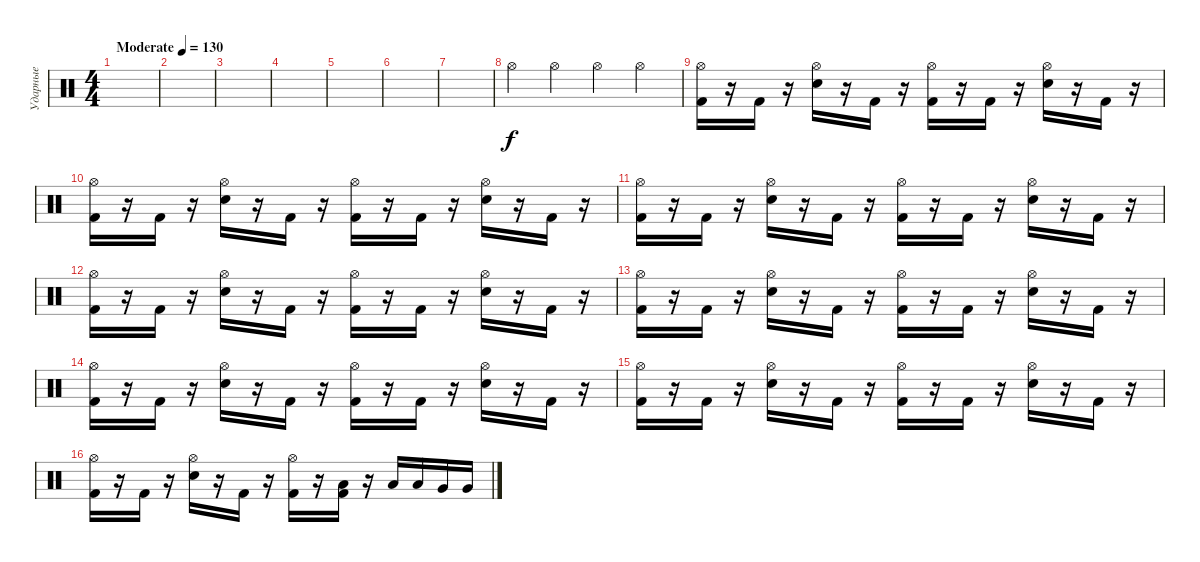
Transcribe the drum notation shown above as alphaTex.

\track ("Ударные" "Ударные") {instrument percussion}
\staff {score}
\articulation defaults
\ts (4 4)
\tempo (130 "Moderate")
\clef neutral
\ks c
|
|
|
|
|
|
|
"Hi-Hat (open)".4 "Hi-Hat (open)".4 "Hi-Hat (open)".4 "Hi-Hat (open)".4 |
("Hi-Hat (open)" "Kick (hit) 2").16 r.16 "Kick (hit) 2".16 r.16 ("Hi-Hat (open)" "Electric Snare (hit)").16 r.16 "Kick (hit) 2".16 r.16 ("Hi-Hat (open)" "Kick (hit) 2").16 r.16 "Kick (hit) 2".16 r.16 ("Hi-Hat (open)" "Electric Snare (hit)").16 r.16 "Kick (hit) 2".16 r.16 |
("Hi-Hat (open)" "Kick (hit) 2").16 r.16 "Kick (hit) 2".16 r.16 ("Hi-Hat (open)" "Electric Snare (hit)").16 r.16 "Kick (hit) 2".16 r.16 ("Hi-Hat (open)" "Kick (hit) 2").16 r.16 "Kick (hit) 2".16 r.16 ("Hi-Hat (open)" "Electric Snare (hit)").16 r.16 "Kick (hit) 2".16 r.16 |
("Hi-Hat (open)" "Kick (hit) 2").16 r.16 "Kick (hit) 2".16 r.16 ("Hi-Hat (open)" "Electric Snare (hit)").16 r.16 "Kick (hit) 2".16 r.16 ("Hi-Hat (open)" "Kick (hit) 2").16 r.16 "Kick (hit) 2".16 r.16 ("Hi-Hat (open)" "Electric Snare (hit)").16 r.16 "Kick (hit) 2".16 r.16 |
("Hi-Hat (open)" "Kick (hit) 2").16 r.16 "Kick (hit) 2".16 r.16 ("Hi-Hat (open)" "Electric Snare (hit)").16 r.16 "Kick (hit) 2".16 r.16 ("Hi-Hat (open)" "Kick (hit) 2").16 r.16 "Kick (hit) 2".16 r.16 ("Hi-Hat (open)" "Electric Snare (hit)").16 r.16 "Kick (hit) 2".16 r.16 |
("Hi-Hat (open)" "Kick (hit) 2").16 r.16 "Kick (hit) 2".16 r.16 ("Hi-Hat (open)" "Electric Snare (hit)").16 r.16 "Kick (hit) 2".16 r.16 ("Hi-Hat (open)" "Kick (hit) 2").16 r.16 "Kick (hit) 2".16 r.16 ("Hi-Hat (open)" "Electric Snare (hit)").16 r.16 "Kick (hit) 2".16 r.16 |
("Hi-Hat (open)" "Kick (hit) 2").16 r.16 "Kick (hit) 2".16 r.16 ("Hi-Hat (open)" "Electric Snare (hit)").16 r.16 "Kick (hit) 2".16 r.16 ("Hi-Hat (open)" "Kick (hit) 2").16 r.16 "Kick (hit) 2".16 r.16 ("Hi-Hat (open)" "Electric Snare (hit)").16 r.16 "Kick (hit) 2".16 r.16 |
("Hi-Hat (open)" "Kick (hit) 2").16 r.16 "Kick (hit) 2".16 r.16 ("Hi-Hat (open)" "Electric Snare (hit)").16 r.16 "Kick (hit) 2".16 r.16 ("Hi-Hat (open)" "Kick (hit) 2").16 r.16 "Kick (hit) 2".16 r.16 ("Hi-Hat (open)" "Electric Snare (hit)").16 r.16 "Kick (hit) 2".16 r.16 |
("Hi-Hat (open)" "Kick (hit) 2").16 r.16 "Kick (hit) 2".16 r.16 ("Hi-Hat (open)" "Electric Snare (hit)").16 r.16 "Kick (hit) 2".16 r.16 ("Hi-Hat (open)" "Kick (hit) 2").16 r.16 ("Low Tom (hit)" "Kick (hit) 2").16 r.16 "Low Tom (hit)".16 "Low Tom (hit)".16 "Very Low Tom (hit)".16 "Very Low Tom (hit)".16
